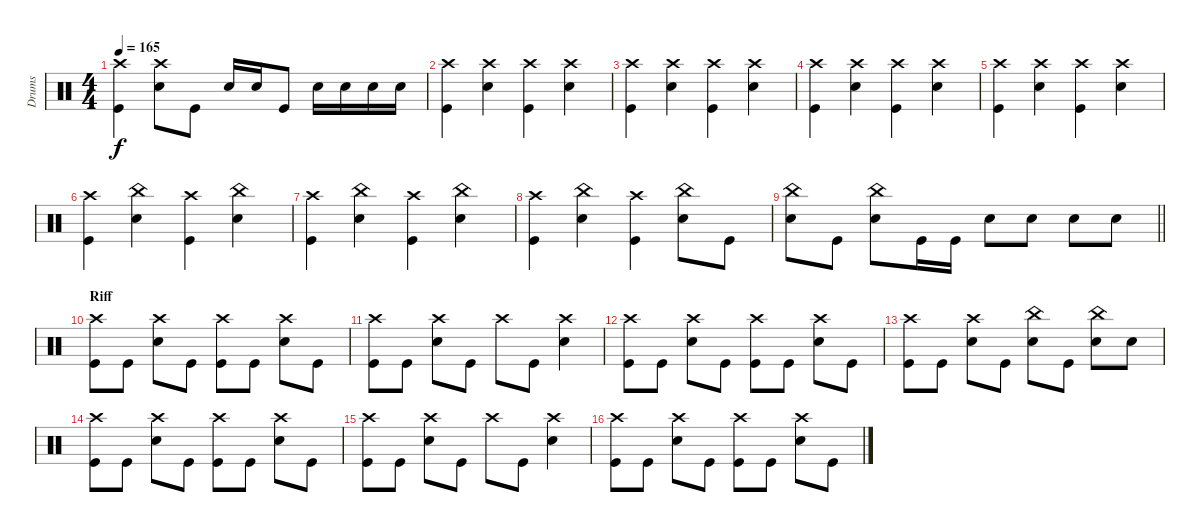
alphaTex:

\track ("Drums" "Drums") {instrument percussion}
\staff {score}
\articulation defaults
\ts (4 4)
\tempo 165
\clef neutral
\ks c
("Kick (hit)" "Crash high (hit)").4{dy f} ("Snare (hit) 2" "Crash high (hit)").8 "Kick (hit)".8 "Snare (hit) 2".16 "Snare (hit) 2".16 "Kick (hit)".8 "Snare (hit) 2".16 "Snare (hit) 2".16 "Snare (hit) 2".16 "Snare (hit) 2".16 |
("Kick (hit)" "Crash high (hit)").4 ("Snare (hit) 2" "Crash high (hit)").4 ("Kick (hit)" "Crash high (hit)").4 ("Snare (hit) 2" "Crash high (hit)").4 |
("Kick (hit)" "Crash high (hit)").4 ("Snare (hit) 2" "Crash high (hit)").4 ("Kick (hit)" "Crash high (hit)").4 ("Snare (hit) 2" "Crash high (hit)").4 |
("Kick (hit)" "Crash high (hit)").4 ("Snare (hit) 2" "Crash high (hit)").4 ("Kick (hit)" "Crash high (hit)").4 ("Snare (hit) 2" "Crash high (hit)").4 |
("Kick (hit)" "Crash high (hit)").4 ("Snare (hit) 2" "Crash high (hit)").4 ("Kick (hit)" "Crash high (hit)").4 ("Snare (hit) 2" "Crash high (hit)").4 |
("Kick (hit)" "Crash high (hit)").4 ("Snare (hit) 2" "China (hit)").4 ("Kick (hit)" "Crash high (hit)").4 ("Snare (hit) 2" "China (hit)").4 |
("Kick (hit)" "Crash high (hit)").4 ("Snare (hit) 2" "China (hit)").4 ("Kick (hit)" "Crash high (hit)").4 ("Snare (hit) 2" "China (hit)").4 |
("Kick (hit)" "Crash high (hit)").4 ("Snare (hit) 2" "China (hit)").4 ("Kick (hit)" "Crash high (hit)").4 ("Snare (hit) 2" "China (hit)").8 "Kick (hit)".8 |
\barLineRight lightlight
("Snare (hit) 2" "China (hit)").8 "Kick (hit)".8 ("Snare (hit) 2" "China (hit)").8 "Kick (hit)".16 "Kick (hit)".16 "Snare (hit) 2".8 "Snare (hit) 2".8 "Snare (hit) 2".8 "Snare (hit) 2".8 |
\section ("" "Riff")
("Kick (hit)" "Crash high (hit)").8 "Kick (hit)".8 ("Snare (hit) 2" "Crash high (hit)").8 "Kick (hit)".8 ("Kick (hit)" "Crash high (hit)").8 "Kick (hit)".8 ("Snare (hit) 2" "Crash high (hit)").8 "Kick (hit)".8 |
("Kick (hit)" "Crash high (hit)").8 "Kick (hit)".8 ("Snare (hit) 2" "Crash high (hit)").8 "Kick (hit)".8 "Crash high (hit)".8 "Kick (hit)".8 ("Snare (hit) 2" "Crash high (hit)").4 |
("Kick (hit)" "Crash high (hit)").8 "Kick (hit)".8 ("Snare (hit) 2" "Crash high (hit)").8 "Kick (hit)".8 ("Kick (hit)" "Crash high (hit)").8 "Kick (hit)".8 ("Snare (hit) 2" "Crash high (hit)").8 "Kick (hit)".8 |
("Kick (hit)" "Crash high (hit)").8 "Kick (hit)".8 ("Snare (hit) 2" "Crash high (hit)").8 "Kick (hit)".8 ("Snare (hit) 2" "China (hit)").8 "Kick (hit)".8 ("Snare (hit) 2" "China (hit)").8 "Snare (hit) 2".8 |
("Kick (hit)" "Crash high (hit)").8 "Kick (hit)".8 ("Snare (hit) 2" "Crash high (hit)").8 "Kick (hit)".8 ("Kick (hit)" "Crash high (hit)").8 "Kick (hit)".8 ("Snare (hit) 2" "Crash high (hit)").8 "Kick (hit)".8 |
("Kick (hit)" "Crash high (hit)").8 "Kick (hit)".8 ("Snare (hit) 2" "Crash high (hit)").8 "Kick (hit)".8 "Crash high (hit)".8 "Kick (hit)".8 ("Snare (hit) 2" "Crash high (hit)").4 |
("Kick (hit)" "Crash high (hit)").8 "Kick (hit)".8 ("Snare (hit) 2" "Crash high (hit)").8 "Kick (hit)".8 ("Kick (hit)" "Crash high (hit)").8 "Kick (hit)".8 ("Snare (hit) 2" "Crash high (hit)").8 "Kick (hit)".8
